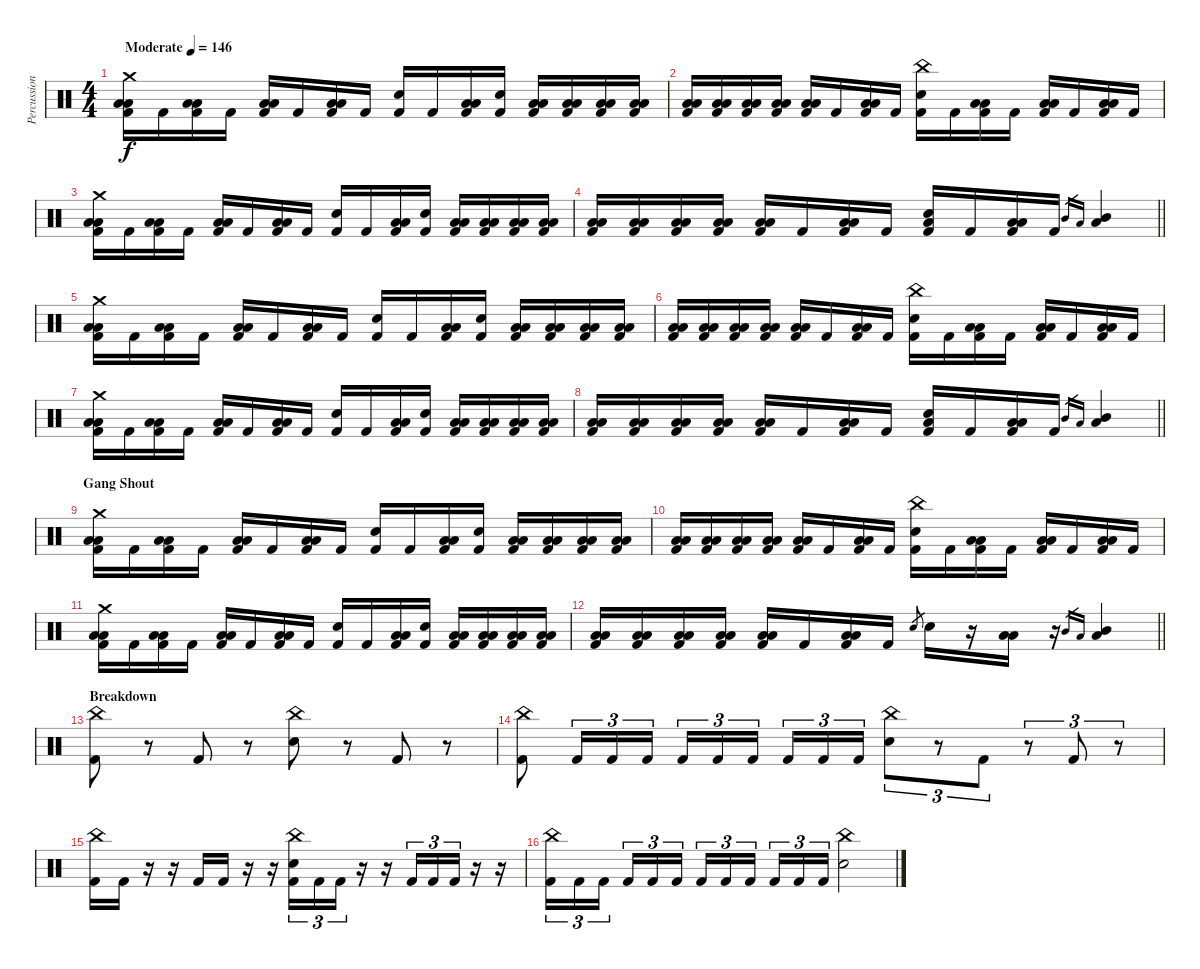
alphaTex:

\track ("Percussion" "Percussion") {instrument percussion}
\staff {score}
\articulation defaults
\ts (4 4)
\tempo (146 "Moderate")
\clef neutral
\ks c
("Crash medium (hit)" "Low Floor Tom (hit)" "Low Floor Tom (hit)" "Kick (hit) 2").16{dy f} "Kick (hit) 2".16 ("Low Floor Tom (hit)" "Low Floor Tom (hit)" "Kick (hit) 2").16 "Kick (hit) 2".16 ("Low Floor Tom (hit)" "Low Floor Tom (hit)" "Kick (hit) 2").16 "Kick (hit) 2".16 ("Low Floor Tom (hit)" "Low Floor Tom (hit)" "Kick (hit) 2").16 "Kick (hit) 2".16 ("Electric Snare (hit)" "Kick (hit) 2").16 "Kick (hit) 2".16 ("Low Floor Tom (hit)" "Low Floor Tom (hit)" "Kick (hit) 2").16 ("Electric Snare (hit)" "Kick (hit) 2").16 ("Low Tom (hit)" "Low Tom (hit)" "Kick (hit) 2").16 ("Low Tom (hit)" "Low Tom (hit)" "Kick (hit) 2").16 ("Low Tom (hit)" "Low Tom (hit)" "Kick (hit) 2").16 ("Low Tom (hit)" "Low Tom (hit)" "Kick (hit) 2").16 |
("Low Floor Tom (hit)" "Low Floor Tom (hit)" "Kick (hit) 2").16 ("Low Floor Tom (hit)" "Low Floor Tom (hit)" "Kick (hit) 2").16 ("Low Floor Tom (hit)" "Low Floor Tom (hit)" "Kick (hit) 2").16 ("Low Floor Tom (hit)" "Low Floor Tom (hit)" "Kick (hit) 2").16 ("Low Floor Tom (hit)" "Low Floor Tom (hit)" "Kick (hit) 2").16 "Kick (hit) 2".16 ("Low Floor Tom (hit)" "Low Floor Tom (hit)" "Kick (hit) 2").16 "Kick (hit) 2".16 ("China (hit)" "Electric Snare (hit)" "Kick (hit) 2").16 "Kick (hit) 2".16 ("Low Floor Tom (hit)" "Low Floor Tom (hit)" "Kick (hit) 2").16 "Kick (hit) 2".16 ("Low Floor Tom (hit)" "Low Floor Tom (hit)" "Kick (hit) 2").16 "Kick (hit) 2".16 ("Low Floor Tom (hit)" "Low Floor Tom (hit)" "Kick (hit) 2").16 "Kick (hit) 2".16 |
("Crash medium (hit)" "Low Floor Tom (hit)" "Low Floor Tom (hit)" "Kick (hit) 2").16 "Kick (hit) 2".16 ("Low Floor Tom (hit)" "Low Floor Tom (hit)" "Kick (hit) 2").16 "Kick (hit) 2".16 ("Low Floor Tom (hit)" "Low Floor Tom (hit)" "Kick (hit) 2").16 "Kick (hit) 2".16 ("Low Floor Tom (hit)" "Low Floor Tom (hit)" "Kick (hit) 2").16 "Kick (hit) 2".16 ("Electric Snare (hit)" "Kick (hit) 2").16 "Kick (hit) 2".16 ("Low Floor Tom (hit)" "Low Floor Tom (hit)" "Kick (hit) 2").16 ("Electric Snare (hit)" "Kick (hit) 2").16 ("Low Tom (hit)" "Low Tom (hit)" "Kick (hit) 2").16 ("Low Tom (hit)" "Low Tom (hit)" "Kick (hit) 2").16 ("Low Tom (hit)" "Low Tom (hit)" "Kick (hit) 2").16 ("Low Tom (hit)" "Low Tom (hit)" "Kick (hit) 2").16 |
\barLineRight lightlight
("Low Floor Tom (hit)" "Low Floor Tom (hit)" "Kick (hit) 2").16 ("Low Floor Tom (hit)" "Low Floor Tom (hit)" "Kick (hit) 2").16 ("Low Floor Tom (hit)" "Low Floor Tom (hit)" "Kick (hit) 2").16 ("Low Floor Tom (hit)" "Low Floor Tom (hit)" "Kick (hit) 2").16 ("Low Floor Tom (hit)" "Low Floor Tom (hit)" "Kick (hit) 2").16 "Kick (hit) 2".16 ("Low Floor Tom (hit)" "Low Floor Tom (hit)" "Kick (hit) 2").16 "Kick (hit) 2".16 ("Electric Snare (hit)" "Low Floor Tom (hit)" "Kick (hit) 2").16 "Kick (hit) 2".16 ("Low Floor Tom (hit)" "Low Floor Tom (hit)" "Kick (hit) 2").16 "Kick (hit) 2".16 "Mid Tom (hit)".16{gr} "Low Floor Tom (hit)".16{gr} ("Mid Tom (hit)" "Low Floor Tom (hit)").4 |
\section ("" "")
("Crash medium (hit)" "Low Floor Tom (hit)" "Low Floor Tom (hit)" "Kick (hit) 2").16 "Kick (hit) 2".16 ("Low Floor Tom (hit)" "Low Floor Tom (hit)" "Kick (hit) 2").16 "Kick (hit) 2".16 ("Low Floor Tom (hit)" "Low Floor Tom (hit)" "Kick (hit) 2").16 "Kick (hit) 2".16 ("Low Floor Tom (hit)" "Low Floor Tom (hit)" "Kick (hit) 2").16 "Kick (hit) 2".16 ("Electric Snare (hit)" "Kick (hit) 2").16 "Kick (hit) 2".16 ("Low Floor Tom (hit)" "Low Floor Tom (hit)" "Kick (hit) 2").16 ("Electric Snare (hit)" "Kick (hit) 2").16 ("Low Tom (hit)" "Low Tom (hit)" "Kick (hit) 2").16 ("Low Tom (hit)" "Low Tom (hit)" "Kick (hit) 2").16 ("Low Tom (hit)" "Low Tom (hit)" "Kick (hit) 2").16 ("Low Tom (hit)" "Low Tom (hit)" "Kick (hit) 2").16 |
("Low Floor Tom (hit)" "Low Floor Tom (hit)" "Kick (hit) 2").16 ("Low Floor Tom (hit)" "Low Floor Tom (hit)" "Kick (hit) 2").16 ("Low Floor Tom (hit)" "Low Floor Tom (hit)" "Kick (hit) 2").16 ("Low Floor Tom (hit)" "Low Floor Tom (hit)" "Kick (hit) 2").16 ("Low Floor Tom (hit)" "Low Floor Tom (hit)" "Kick (hit) 2").16 "Kick (hit) 2".16 ("Low Floor Tom (hit)" "Low Floor Tom (hit)" "Kick (hit) 2").16 "Kick (hit) 2".16 ("China (hit)" "Electric Snare (hit)" "Kick (hit) 2").16 "Kick (hit) 2".16 ("Low Floor Tom (hit)" "Low Floor Tom (hit)" "Kick (hit) 2").16 "Kick (hit) 2".16 ("Low Floor Tom (hit)" "Low Floor Tom (hit)" "Kick (hit) 2").16 "Kick (hit) 2".16 ("Low Floor Tom (hit)" "Low Floor Tom (hit)" "Kick (hit) 2").16 "Kick (hit) 2".16 |
("Crash medium (hit)" "Low Floor Tom (hit)" "Low Floor Tom (hit)" "Kick (hit) 2").16 "Kick (hit) 2".16 ("Low Floor Tom (hit)" "Low Floor Tom (hit)" "Kick (hit) 2").16 "Kick (hit) 2".16 ("Low Floor Tom (hit)" "Low Floor Tom (hit)" "Kick (hit) 2").16 "Kick (hit) 2".16 ("Low Floor Tom (hit)" "Low Floor Tom (hit)" "Kick (hit) 2").16 "Kick (hit) 2".16 ("Electric Snare (hit)" "Kick (hit) 2").16 "Kick (hit) 2".16 ("Low Floor Tom (hit)" "Low Floor Tom (hit)" "Kick (hit) 2").16 ("Electric Snare (hit)" "Kick (hit) 2").16 ("Low Tom (hit)" "Low Tom (hit)" "Kick (hit) 2").16 ("Low Tom (hit)" "Low Tom (hit)" "Kick (hit) 2").16 ("Low Tom (hit)" "Low Tom (hit)" "Kick (hit) 2").16 ("Low Tom (hit)" "Low Tom (hit)" "Kick (hit) 2").16 |
\barLineRight lightlight
("Low Floor Tom (hit)" "Low Floor Tom (hit)" "Kick (hit) 2").16 ("Low Floor Tom (hit)" "Low Floor Tom (hit)" "Kick (hit) 2").16 ("Low Floor Tom (hit)" "Low Floor Tom (hit)" "Kick (hit) 2").16 ("Low Floor Tom (hit)" "Low Floor Tom (hit)" "Kick (hit) 2").16 ("Low Floor Tom (hit)" "Low Floor Tom (hit)" "Kick (hit) 2").16 "Kick (hit) 2".16 ("Low Floor Tom (hit)" "Low Floor Tom (hit)" "Kick (hit) 2").16 "Kick (hit) 2".16 ("Electric Snare (hit)" "Low Floor Tom (hit)" "Kick (hit) 2").16 "Kick (hit) 2".16 ("Low Floor Tom (hit)" "Low Floor Tom (hit)" "Kick (hit) 2").16 "Kick (hit) 2".16 "Mid Tom (hit)".16{gr} "Low Floor Tom (hit)".16{gr} ("Mid Tom (hit)" "Low Floor Tom (hit)").4 |
\section ("" "Gang Shout")
("Crash medium (hit)" "Low Floor Tom (hit)" "Low Floor Tom (hit)" "Kick (hit) 2").16 "Kick (hit) 2".16 ("Low Floor Tom (hit)" "Low Floor Tom (hit)" "Kick (hit) 2").16 "Kick (hit) 2".16 ("Low Floor Tom (hit)" "Low Floor Tom (hit)" "Kick (hit) 2").16 "Kick (hit) 2".16 ("Low Floor Tom (hit)" "Low Floor Tom (hit)" "Kick (hit) 2").16 "Kick (hit) 2".16 ("Electric Snare (hit)" "Kick (hit) 2").16 "Kick (hit) 2".16 ("Low Floor Tom (hit)" "Low Floor Tom (hit)" "Kick (hit) 2").16 ("Electric Snare (hit)" "Kick (hit) 2").16 ("Low Tom (hit)" "Low Tom (hit)" "Kick (hit) 2").16 ("Low Tom (hit)" "Low Tom (hit)" "Kick (hit) 2").16 ("Low Tom (hit)" "Low Tom (hit)" "Kick (hit) 2").16 ("Low Tom (hit)" "Low Tom (hit)" "Kick (hit) 2").16 |
("Low Floor Tom (hit)" "Low Floor Tom (hit)" "Kick (hit) 2").16 ("Low Floor Tom (hit)" "Low Floor Tom (hit)" "Kick (hit) 2").16 ("Low Floor Tom (hit)" "Low Floor Tom (hit)" "Kick (hit) 2").16 ("Low Floor Tom (hit)" "Low Floor Tom (hit)" "Kick (hit) 2").16 ("Low Floor Tom (hit)" "Low Floor Tom (hit)" "Kick (hit) 2").16 "Kick (hit) 2".16 ("Low Floor Tom (hit)" "Low Floor Tom (hit)" "Kick (hit) 2").16 "Kick (hit) 2".16 ("China (hit)" "Electric Snare (hit)" "Kick (hit) 2").16 "Kick (hit) 2".16 ("Low Floor Tom (hit)" "Low Floor Tom (hit)" "Kick (hit) 2").16 "Kick (hit) 2".16 ("Low Floor Tom (hit)" "Low Floor Tom (hit)" "Kick (hit) 2").16 "Kick (hit) 2".16 ("Low Floor Tom (hit)" "Low Floor Tom (hit)" "Kick (hit) 2").16 "Kick (hit) 2".16 |
("Crash medium (hit)" "Low Floor Tom (hit)" "Low Floor Tom (hit)" "Kick (hit) 2").16 "Kick (hit) 2".16 ("Low Floor Tom (hit)" "Low Floor Tom (hit)" "Kick (hit) 2").16 "Kick (hit) 2".16 ("Low Floor Tom (hit)" "Low Floor Tom (hit)" "Kick (hit) 2").16 "Kick (hit) 2".16 ("Low Floor Tom (hit)" "Low Floor Tom (hit)" "Kick (hit) 2").16 "Kick (hit) 2".16 ("Electric Snare (hit)" "Kick (hit) 2").16 "Kick (hit) 2".16 ("Low Floor Tom (hit)" "Low Floor Tom (hit)" "Kick (hit) 2").16 ("Electric Snare (hit)" "Kick (hit) 2").16 ("Low Tom (hit)" "Low Tom (hit)" "Kick (hit) 2").16 ("Low Tom (hit)" "Low Tom (hit)" "Kick (hit) 2").16 ("Low Tom (hit)" "Low Tom (hit)" "Kick (hit) 2").16 ("Low Tom (hit)" "Low Tom (hit)" "Kick (hit) 2").16 |
\barLineRight lightlight
("Low Floor Tom (hit)" "Low Floor Tom (hit)" "Kick (hit) 2").16 ("Low Floor Tom (hit)" "Low Floor Tom (hit)" "Kick (hit) 2").16 ("Low Floor Tom (hit)" "Low Floor Tom (hit)" "Kick (hit) 2").16 ("Low Floor Tom (hit)" "Low Floor Tom (hit)" "Kick (hit) 2").16 ("Low Floor Tom (hit)" "Low Floor Tom (hit)" "Kick (hit) 2").16 "Kick (hit) 2".16 ("Low Floor Tom (hit)" "Low Floor Tom (hit)" "Kick (hit) 2").16 "Kick (hit) 2".16 "Electric Snare (hit)".8{gr} "Electric Snare (hit)".16 r.16 ("Low Floor Tom (hit)" "Low Floor Tom (hit)").16 r.16 "Mid Tom (hit)".16{gr} "Low Floor Tom (hit)".16{gr} ("Mid Tom (hit)" "Low Floor Tom (hit)").4 |
\section ("" "Breakdown")
("China (hit)" "Kick (hit) 2").8 r.8 "Kick (hit) 2".8 r.8 ("China (hit)" "Electric Snare (hit)").8 r.8 "Kick (hit) 2".8 r.8 |
("China (hit)" "Kick (hit) 2").8 "Kick (hit) 2".16{tu (3 2)} "Kick (hit) 2".16{tu (3 2)} "Kick (hit) 2".16{tu (3 2)} "Kick (hit) 2".16{tu (3 2)} "Kick (hit) 2".16{tu (3 2)} "Kick (hit) 2".16{tu (3 2) beam splitsecondary} "Kick (hit) 2".16{tu (3 2)} "Kick (hit) 2".16{tu (3 2)} "Kick (hit) 2".16{tu (3 2)} ("China (hit)" "Electric Snare (hit)").8{tu (3 2)} r.8{tu (3 2)} "Kick (hit) 2".8{tu (3 2)} r.8{tu (3 2)} "Kick (hit) 2".8{tu (3 2)} r.8{tu (3 2)} |
("China (hit)" "Kick (hit) 2").16 "Kick (hit) 2".16 r.16 r.16 "Kick (hit) 2".16 "Kick (hit) 2".16 r.16 r.16 ("China (hit)" "Electric Snare (hit)" "Kick (hit) 2").16{tu (3 2)} "Kick (hit) 2".16{tu (3 2)} "Kick (hit) 2".16{tu (3 2)} r.16 r.16 "Kick (hit) 2".16{tu (3 2)} "Kick (hit) 2".16{tu (3 2)} "Kick (hit) 2".16{tu (3 2)} r.16 r.16 |
("China (hit)" "Kick (hit) 2").16{tu (3 2)} "Kick (hit) 2".16{tu (3 2)} "Kick (hit) 2".16{tu (3 2) beam splitsecondary} "Kick (hit) 2".16{tu (3 2)} "Kick (hit) 2".16{tu (3 2)} "Kick (hit) 2".16{tu (3 2)} "Kick (hit) 2".16{tu (3 2)} "Kick (hit) 2".16{tu (3 2)} "Kick (hit) 2".16{tu (3 2) beam splitsecondary} "Kick (hit) 2".16{tu (3 2)} "Kick (hit) 2".16{tu (3 2)} "Kick (hit) 2".16{tu (3 2)} ("China (hit)" "Electric Snare (hit)").2
